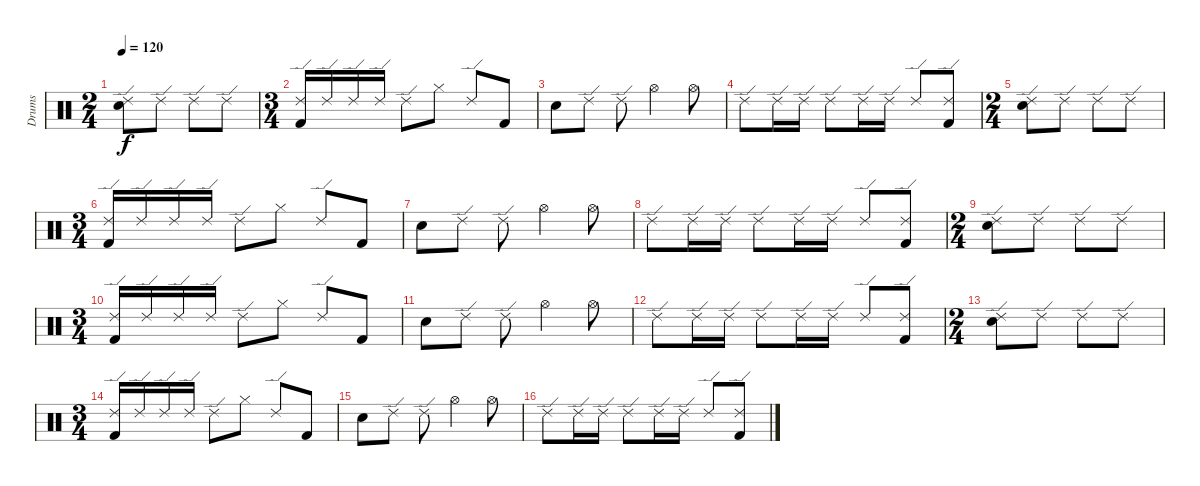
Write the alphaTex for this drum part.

\track ("Drums" "Drums") {instrument percussion}
\staff {score}
\articulation defaults
\ts (2 4)
\tempo 120
\clef neutral
\ks c
("Electric Snare (hit)" "Ride (edge) 2").8{dy f} "Ride (edge) 2".8 "Ride (edge) 2".8 "Ride (edge) 2".8 |
\ts (3 4)
("Ride (edge) 2" "Kick (hit) 2").16 "Ride (edge) 2".16 "Ride (edge) 2".16 "Ride (edge) 2".16 "Ride (edge) 2".8 "Hi-Hat (closed)".8 "Ride (edge) 2".8 "Kick (hit) 2".8 |
"Electric Snare (hit)".8 "Ride (edge) 2".8 "Ride (edge) 2".8 "Hi-Hat (open)".4 "Hi-Hat (open)".8 |
"Ride (edge) 2".8 "Ride (edge) 2".16 "Ride (edge) 2".16 "Ride (edge) 2".8 "Ride (edge) 2".16 "Ride (edge) 2".16 "Ride (edge) 2".8 ("Ride (edge) 2" "Kick (hit) 2").8 |
\ts (2 4)
("Electric Snare (hit)" "Ride (edge) 2").8 "Ride (edge) 2".8 "Ride (edge) 2".8 "Ride (edge) 2".8 |
\ts (3 4)
("Ride (edge) 2" "Kick (hit) 2").16 "Ride (edge) 2".16 "Ride (edge) 2".16 "Ride (edge) 2".16 "Ride (edge) 2".8 "Hi-Hat (closed)".8 "Ride (edge) 2".8 "Kick (hit) 2".8 |
"Electric Snare (hit)".8 "Ride (edge) 2".8 "Ride (edge) 2".8 "Hi-Hat (open)".4 "Hi-Hat (open)".8 |
"Ride (edge) 2".8 "Ride (edge) 2".16 "Ride (edge) 2".16 "Ride (edge) 2".8 "Ride (edge) 2".16 "Ride (edge) 2".16 "Ride (edge) 2".8 ("Ride (edge) 2" "Kick (hit) 2").8 |
\ts (2 4)
("Electric Snare (hit)" "Ride (edge) 2").8 "Ride (edge) 2".8 "Ride (edge) 2".8 "Ride (edge) 2".8 |
\ts (3 4)
("Ride (edge) 2" "Kick (hit) 2").16 "Ride (edge) 2".16 "Ride (edge) 2".16 "Ride (edge) 2".16 "Ride (edge) 2".8 "Hi-Hat (closed)".8 "Ride (edge) 2".8 "Kick (hit) 2".8 |
"Electric Snare (hit)".8 "Ride (edge) 2".8 "Ride (edge) 2".8 "Hi-Hat (open)".4 "Hi-Hat (open)".8 |
"Ride (edge) 2".8 "Ride (edge) 2".16 "Ride (edge) 2".16 "Ride (edge) 2".8 "Ride (edge) 2".16 "Ride (edge) 2".16 "Ride (edge) 2".8 ("Ride (edge) 2" "Kick (hit) 2").8 |
\ts (2 4)
("Electric Snare (hit)" "Ride (edge) 2").8 "Ride (edge) 2".8 "Ride (edge) 2".8 "Ride (edge) 2".8 |
\ts (3 4)
("Ride (edge) 2" "Kick (hit) 2").16 "Ride (edge) 2".16 "Ride (edge) 2".16 "Ride (edge) 2".16 "Ride (edge) 2".8 "Hi-Hat (closed)".8 "Ride (edge) 2".8 "Kick (hit) 2".8 |
"Electric Snare (hit)".8 "Ride (edge) 2".8 "Ride (edge) 2".8 "Hi-Hat (open)".4 "Hi-Hat (open)".8 |
"Ride (edge) 2".8 "Ride (edge) 2".16 "Ride (edge) 2".16 "Ride (edge) 2".8 "Ride (edge) 2".16 "Ride (edge) 2".16 "Ride (edge) 2".8 ("Ride (edge) 2" "Kick (hit) 2").8
